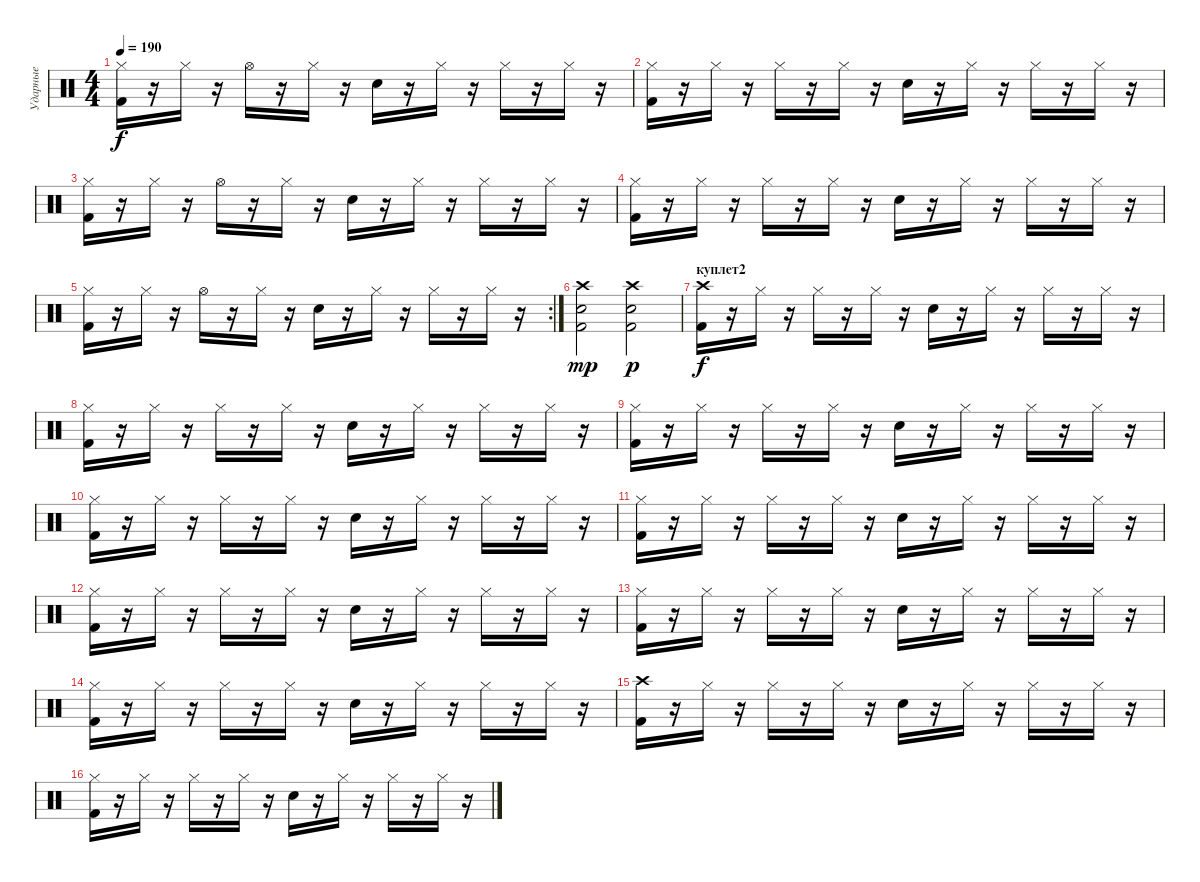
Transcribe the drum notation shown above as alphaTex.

\track ("Ударные" "Ударные") {instrument percussion}
\staff {score}
\articulation defaults
\ts (4 4)
\tempo 190
\clef neutral
\ks c
("Hi-Hat (closed)" "Kick (hit) 2").16{dy f} r.16 "Hi-Hat (closed)".16 r.16 "Hi-Hat (open)".16 r.16 "Hi-Hat (closed)".16 r.16 "Snare (hit) 2".16 r.16 "Hi-Hat (closed)".16 r.16 "Hi-Hat (closed)".16 r.16 "Hi-Hat (closed)".16 r.16 |
("Hi-Hat (closed)" "Kick (hit) 2").16 r.16 "Hi-Hat (closed)".16 r.16 "Hi-Hat (closed)".16 r.16 "Hi-Hat (closed)".16 r.16 "Snare (hit) 2".16 r.16 "Hi-Hat (closed)".16 r.16 "Hi-Hat (closed)".16 r.16 "Hi-Hat (closed)".16 r.16 |
("Hi-Hat (closed)" "Kick (hit) 2").16 r.16 "Hi-Hat (closed)".16 r.16 "Hi-Hat (open)".16 r.16 "Hi-Hat (closed)".16 r.16 "Snare (hit) 2".16 r.16 "Hi-Hat (closed)".16 r.16 "Hi-Hat (closed)".16 r.16 "Hi-Hat (closed)".16 r.16 |
("Hi-Hat (closed)" "Kick (hit) 2").16 r.16 "Hi-Hat (closed)".16 r.16 "Hi-Hat (closed)".16 r.16 "Hi-Hat (closed)".16 r.16 "Snare (hit) 2".16 r.16 "Hi-Hat (closed)".16 r.16 "Hi-Hat (closed)".16 r.16 "Hi-Hat (closed)".16 r.16 |
\rc 2
("Hi-Hat (closed)" "Kick (hit) 2").16 r.16 "Hi-Hat (closed)".16 r.16 "Hi-Hat (open)".16 r.16 "Hi-Hat (closed)".16 r.16 "Snare (hit) 2".16 r.16 "Hi-Hat (closed)".16 r.16 "Hi-Hat (closed)".16 r.16 "Hi-Hat (closed)".16 r.16 |
("Crash high (hit)" "Snare (hit) 2" "Kick (hit) 2").2{dy mp} ("Crash high (hit)" "Snare (hit) 2" "Kick (hit) 2").2{dy p} |
\section ("" "куплет2")
("Crash high (hit)" "Kick (hit) 2").16{dy f} r.16 "Hi-Hat (closed)".16 r.16 "Hi-Hat (closed)".16 r.16 "Hi-Hat (closed)".16 r.16 "Snare (hit) 2".16 r.16 "Hi-Hat (closed)".16 r.16 "Hi-Hat (closed)".16 r.16 "Hi-Hat (closed)".16 r.16 |
("Hi-Hat (closed)" "Kick (hit) 2").16 r.16 "Hi-Hat (closed)".16 r.16 "Hi-Hat (closed)".16 r.16 "Hi-Hat (closed)".16 r.16 "Snare (hit) 2".16 r.16 "Hi-Hat (closed)".16 r.16 "Hi-Hat (closed)".16 r.16 "Hi-Hat (closed)".16 r.16 |
("Hi-Hat (closed)" "Kick (hit) 2").16 r.16 "Hi-Hat (closed)".16 r.16 "Hi-Hat (closed)".16 r.16 "Hi-Hat (closed)".16 r.16 "Snare (hit) 2".16 r.16 "Hi-Hat (closed)".16 r.16 "Hi-Hat (closed)".16 r.16 "Hi-Hat (closed)".16 r.16 |
("Hi-Hat (closed)" "Kick (hit) 2").16 r.16 "Hi-Hat (closed)".16 r.16 "Hi-Hat (closed)".16 r.16 "Hi-Hat (closed)".16 r.16 "Snare (hit) 2".16 r.16 "Hi-Hat (closed)".16 r.16 "Hi-Hat (closed)".16 r.16 "Hi-Hat (closed)".16 r.16 |
("Hi-Hat (closed)" "Kick (hit) 2").16 r.16 "Hi-Hat (closed)".16 r.16 "Hi-Hat (closed)".16 r.16 "Hi-Hat (closed)".16 r.16 "Snare (hit) 2".16 r.16 "Hi-Hat (closed)".16 r.16 "Hi-Hat (closed)".16 r.16 "Hi-Hat (closed)".16 r.16 |
("Hi-Hat (closed)" "Kick (hit) 2").16 r.16 "Hi-Hat (closed)".16 r.16 "Hi-Hat (closed)".16 r.16 "Hi-Hat (closed)".16 r.16 "Snare (hit) 2".16 r.16 "Hi-Hat (closed)".16 r.16 "Hi-Hat (closed)".16 r.16 "Hi-Hat (closed)".16 r.16 |
("Hi-Hat (closed)" "Kick (hit) 2").16 r.16 "Hi-Hat (closed)".16 r.16 "Hi-Hat (closed)".16 r.16 "Hi-Hat (closed)".16 r.16 "Snare (hit) 2".16 r.16 "Hi-Hat (closed)".16 r.16 "Hi-Hat (closed)".16 r.16 "Hi-Hat (closed)".16 r.16 |
("Hi-Hat (closed)" "Kick (hit) 2").16 r.16 "Hi-Hat (closed)".16 r.16 "Hi-Hat (closed)".16 r.16 "Hi-Hat (closed)".16 r.16 "Snare (hit) 2".16 r.16 "Hi-Hat (closed)".16 r.16 "Hi-Hat (closed)".16 r.16 "Hi-Hat (closed)".16 r.16 |
("Crash high (hit)" "Kick (hit) 2").16 r.16 "Hi-Hat (closed)".16 r.16 "Hi-Hat (closed)".16 r.16 "Hi-Hat (closed)".16 r.16 "Snare (hit) 2".16 r.16 "Hi-Hat (closed)".16 r.16 "Hi-Hat (closed)".16 r.16 "Hi-Hat (closed)".16 r.16 |
("Hi-Hat (closed)" "Kick (hit) 2").16 r.16 "Hi-Hat (closed)".16 r.16 "Hi-Hat (closed)".16 r.16 "Hi-Hat (closed)".16 r.16 "Snare (hit) 2".16 r.16 "Hi-Hat (closed)".16 r.16 "Hi-Hat (closed)".16 r.16 "Hi-Hat (closed)".16 r.16
